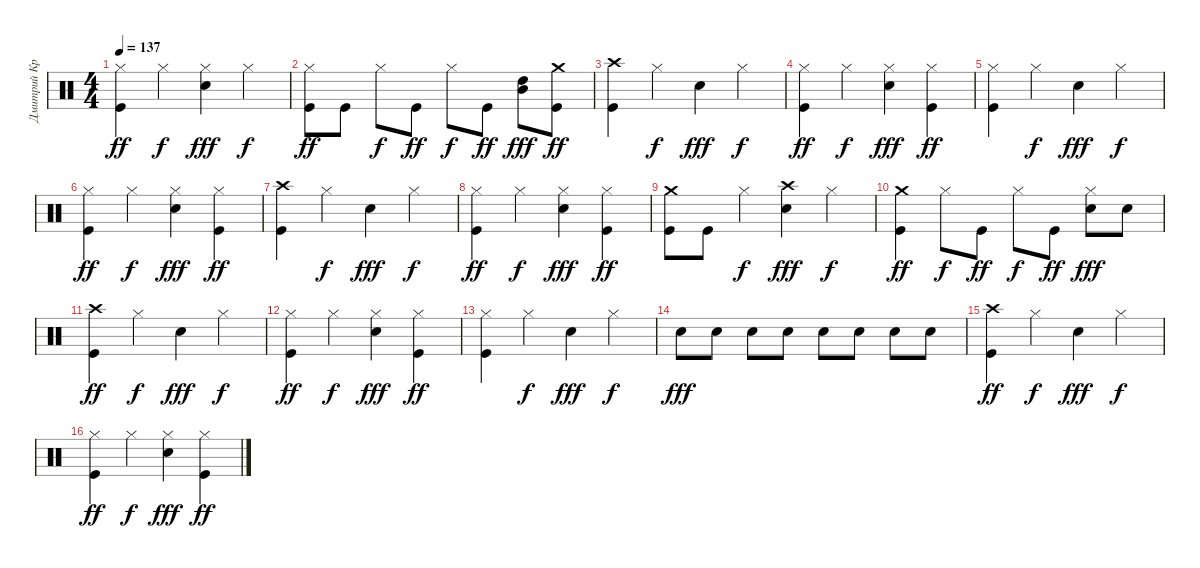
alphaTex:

\track ("Дмитрий Кревенков" "Дмитрий Кр") {instrument percussion}
\staff {score}
\articulation defaults
\ts (4 4)
\tempo 137
\clef neutral
\ks c
("Kick (hit)" "Hi-Hat (closed)").4{dy ff} "Hi-Hat (closed)".4{dy f} ("Snare (hit) 2" "Hi-Hat (closed)").4{dy fff} "Hi-Hat (closed)".4{dy f} |
("Kick (hit)" "Hi-Hat (closed)").8{dy ff} "Kick (hit)".8 "Hi-Hat (closed)".8{dy f} "Kick (hit)".8{dy ff} "Hi-Hat (closed)".8{dy f} "Kick (hit)".8{dy ff} ("High Tom (hit)" "Mid Tom (hit)").8{dy fff} ("Kick (hit)" "Crash medium (hit)").8{dy ff} |
("Crash high (hit)" "Kick (hit)").4 "Hi-Hat (closed)".4{dy f} "Snare (hit) 2".4{dy fff} "Hi-Hat (closed)".4{dy f} |
("Kick (hit)" "Hi-Hat (closed)").4{dy ff} "Hi-Hat (closed)".4{dy f} ("Snare (hit) 2" "Hi-Hat (closed)").4{dy fff} ("Kick (hit)" "Hi-Hat (closed)").4{dy ff} |
("Kick (hit)" "Hi-Hat (closed)").4 "Hi-Hat (closed)".4{dy f} "Snare (hit) 2".4{dy fff} "Hi-Hat (closed)".4{dy f} |
("Kick (hit)" "Hi-Hat (closed)").4{dy ff} "Hi-Hat (closed)".4{dy f} ("Snare (hit) 2" "Hi-Hat (closed)").4{dy fff} ("Kick (hit)" "Hi-Hat (closed)").4{dy ff} |
("Crash high (hit)" "Kick (hit)").4 "Hi-Hat (closed)".4{dy f} "Snare (hit) 2".4{dy fff} "Hi-Hat (closed)".4{dy f} |
("Kick (hit)" "Hi-Hat (closed)").4{dy ff} "Hi-Hat (closed)".4{dy f} ("Snare (hit) 2" "Hi-Hat (closed)").4{dy fff} ("Kick (hit)" "Hi-Hat (closed)").4{dy ff} |
("Crash medium (hit)" "Kick (hit)").8 "Kick (hit)".8 "Hi-Hat (closed)".4{dy f} ("Crash high (hit)" "Snare (hit) 2").4{dy fff} "Hi-Hat (closed)".4{dy f} |
("Crash medium (hit)" "Kick (hit)").4{dy ff} "Hi-Hat (closed)".8{dy f} "Kick (hit)".8{dy ff} "Hi-Hat (closed)".8{dy f} "Kick (hit)".8{dy ff} ("Snare (hit) 2" "Hi-Hat (closed)").8{dy fff} "Snare (hit) 2".8 |
("Crash high (hit)" "Kick (hit)").4{dy ff} "Hi-Hat (closed)".4{dy f} "Snare (hit) 2".4{dy fff} "Hi-Hat (closed)".4{dy f} |
("Kick (hit)" "Hi-Hat (closed)").4{dy ff} "Hi-Hat (closed)".4{dy f} ("Snare (hit) 2" "Hi-Hat (closed)").4{dy fff} ("Kick (hit)" "Hi-Hat (closed)").4{dy ff} |
("Kick (hit)" "Hi-Hat (closed)").4 "Hi-Hat (closed)".4{dy f} "Snare (hit) 2".4{dy fff} "Hi-Hat (closed)".4{dy f} |
"Snare (hit) 2".8{dy fff} "Snare (hit) 2".8 "Snare (hit) 2".8 "Snare (hit) 2".8 "Snare (hit) 2".8 "Snare (hit) 2".8 "Snare (hit) 2".8 "Snare (hit) 2".8 |
("Crash high (hit)" "Kick (hit)").4{dy ff} "Hi-Hat (closed)".4{dy f} "Snare (hit) 2".4{dy fff} "Hi-Hat (closed)".4{dy f} |
("Kick (hit)" "Hi-Hat (closed)").4{dy ff} "Hi-Hat (closed)".4{dy f} ("Snare (hit) 2" "Hi-Hat (closed)").4{dy fff} ("Kick (hit)" "Hi-Hat (closed)").4{dy ff}
